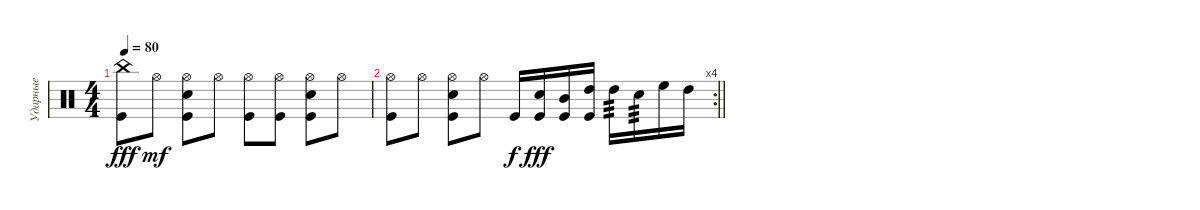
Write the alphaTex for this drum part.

\track ("Ударные" "Ударные") {instrument percussion}
\staff {score}
\articulation defaults
\ts (4 4)
\tempo 80
\clef neutral
\ks c
("Kick (hit)" "China (hit)").8{dy fff} "Hi-Hat (open)".8{dy mf} ("Kick (hit)" "Snare (hit) 2" "Hi-Hat (open)").8 "Hi-Hat (open)".8 ("Hi-Hat (open)" "Kick (hit)").8 ("Kick (hit)" "Hi-Hat (open)").8 ("Kick (hit)" "Snare (hit) 2" "Hi-Hat (open)").8 "Hi-Hat (open)".8 |
\rc 4
\barLineRight lightlight
("Hi-Hat (open)" "Kick (hit)").8 "Hi-Hat (open)".8 ("Kick (hit)" "Snare (hit) 2" "Hi-Hat (open)").8 "Hi-Hat (open)".8 "Kick (hit)".16{dy f} ("Kick (hit)" "Snare (hit) 2").16{dy fff} ("Kick (hit)" "Mid Tom (hit)").16 ("High Tom (hit)" "Kick (hit)").16 "High Tom (hit)".16{tp 3} "Snare (hit) 2".16{tp 3} "High Floor Tom (hit)".16 "High Tom (hit)".16
